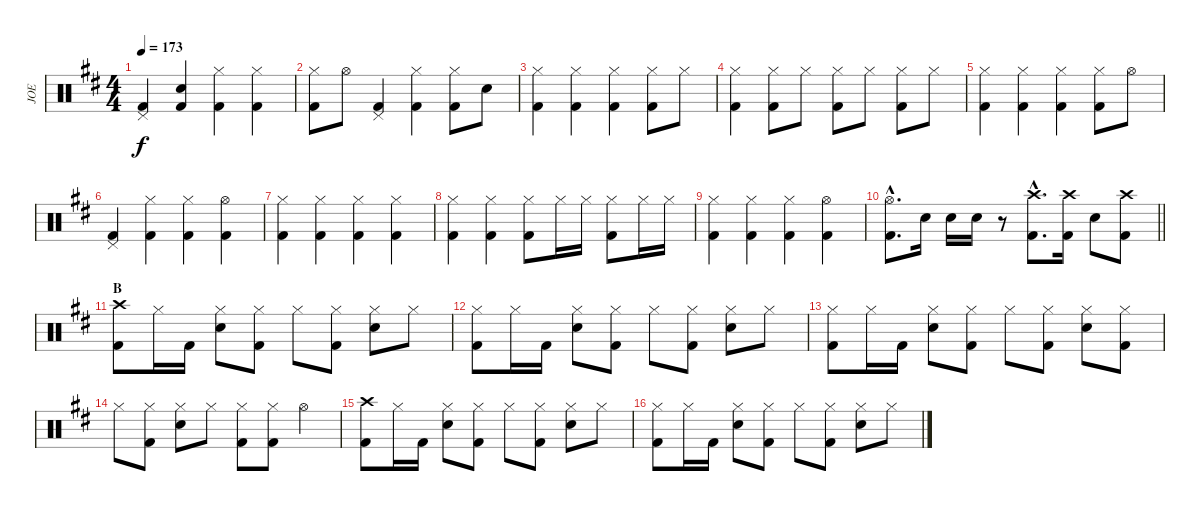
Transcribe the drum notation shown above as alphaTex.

\track ("JOE" "JOE") {instrument percussion}
\staff {score}
\articulation defaults
\ts (4 4)
\tempo 173
\clef neutral
\ks bminor
("Pedal Hi-Hat (hit)" "Kick (hit) 2").4{dy f} ("Snare (hit)" "Kick (hit) 2").4 ("Hi-Hat (closed)" "Kick (hit) 2").4 ("Hi-Hat (closed)" "Kick (hit) 2").4 |
("Hi-Hat (closed)" "Kick (hit) 2").8 "Hi-Hat (open)".8 ("Pedal Hi-Hat (hit)" "Kick (hit) 2").4 ("Hi-Hat (closed)" "Kick (hit) 2").4 ("Hi-Hat (closed)" "Kick (hit) 2").8 "Snare (hit) 2".8 |
("Hi-Hat (closed)" "Kick (hit) 2").4 ("Hi-Hat (closed)" "Kick (hit) 2").4 ("Hi-Hat (closed)" "Kick (hit) 2").4 ("Hi-Hat (closed)" "Kick (hit) 2").8 "Hi-Hat (closed)".8 |
("Hi-Hat (closed)" "Kick (hit) 2").4 ("Hi-Hat (closed)" "Kick (hit) 2").8 "Hi-Hat (closed)".8 ("Hi-Hat (closed)" "Kick (hit) 2").8 "Hi-Hat (closed)".8 ("Hi-Hat (closed)" "Kick (hit) 2").8 "Hi-Hat (closed)".8 |
("Hi-Hat (closed)" "Kick (hit) 2").4 ("Hi-Hat (closed)" "Kick (hit) 2").4 ("Hi-Hat (closed)" "Kick (hit) 2").4 ("Hi-Hat (closed)" "Kick (hit) 2").8 "Hi-Hat (open)".8 |
("Pedal Hi-Hat (hit)" "Kick (hit) 2").4 ("Hi-Hat (closed)" "Kick (hit) 2").4 ("Hi-Hat (closed)" "Kick (hit) 2").4 ("Hi-Hat (open)" "Kick (hit) 2").4 |
("Hi-Hat (closed)" "Kick (hit) 2").4 ("Hi-Hat (closed)" "Kick (hit) 2").4 ("Hi-Hat (closed)" "Kick (hit) 2").4 ("Hi-Hat (closed)" "Kick (hit) 2").4 |
("Hi-Hat (closed)" "Kick (hit) 2").4 ("Hi-Hat (closed)" "Kick (hit) 2").4 ("Hi-Hat (closed)" "Kick (hit) 2").8 "Hi-Hat (closed)".16 "Hi-Hat (closed)".16 ("Hi-Hat (closed)" "Kick (hit) 2").8 "Hi-Hat (closed)".16 "Hi-Hat (closed)".16 |
("Hi-Hat (closed)" "Kick (hit) 2").4 ("Hi-Hat (closed)" "Kick (hit) 2").4 ("Hi-Hat (closed)" "Kick (hit) 2").4 ("Hi-Hat (open)" "Kick (hit) 2").4 |
\barLineRight lightlight
("Hi-Hat (open)"{hac} "Kick (hit) 2"{hac}).8{d} "Snare (hit) 2".16 "Snare (hit) 2".16 "Snare (hit) 2".16 r.8 ("Crash high (hit)"{hac} "Kick (hit) 2"{hac}).8{d} ("Crash high (hit)" "Kick (hit) 2").16 "Snare (hit) 2".8 ("Crash high (hit)" "Kick (hit) 2").8 |
\section ("" "B")
("Crash high (hit)" "Kick (hit) 2").8 "Hi-Hat (closed)".16 "Kick (hit) 2".16 ("Hi-Hat (closed)" "Snare (hit) 2").8 ("Hi-Hat (closed)" "Kick (hit) 2").8 "Hi-Hat (closed)".8 ("Hi-Hat (closed)" "Kick (hit) 2").8 ("Hi-Hat (closed)" "Snare (hit) 2").8 "Hi-Hat (closed)".8 |
("Hi-Hat (closed)" "Kick (hit) 2").8 "Hi-Hat (closed)".16 "Kick (hit) 2".16 ("Hi-Hat (closed)" "Snare (hit) 2").8 ("Hi-Hat (closed)" "Kick (hit) 2").8 "Hi-Hat (closed)".8 ("Hi-Hat (closed)" "Kick (hit) 2").8 ("Hi-Hat (closed)" "Snare (hit) 2").8 "Hi-Hat (closed)".8 |
("Hi-Hat (closed)" "Kick (hit) 2").8 "Hi-Hat (closed)".16 "Kick (hit) 2".16 ("Hi-Hat (closed)" "Snare (hit) 2").8 ("Hi-Hat (closed)" "Kick (hit) 2").8 "Hi-Hat (closed)".8 ("Hi-Hat (closed)" "Kick (hit) 2").8 ("Hi-Hat (closed)" "Snare (hit) 2").8 ("Hi-Hat (closed)" "Kick (hit) 2").8 |
"Hi-Hat (closed)".8 ("Hi-Hat (closed)" "Kick (hit) 2").8 ("Hi-Hat (closed)" "Snare (hit) 2").8 "Hi-Hat (closed)".8 ("Hi-Hat (closed)" "Kick (hit) 2").8 ("Hi-Hat (closed)" "Kick (hit) 2").8 "Hi-Hat (open)".4 |
("Crash high (hit)" "Kick (hit) 2").8 "Hi-Hat (closed)".16 "Kick (hit) 2".16 ("Hi-Hat (closed)" "Snare (hit) 2").8 ("Hi-Hat (closed)" "Kick (hit) 2").8 "Hi-Hat (closed)".8 ("Hi-Hat (closed)" "Kick (hit) 2").8 ("Hi-Hat (closed)" "Snare (hit) 2").8 "Hi-Hat (closed)".8 |
("Hi-Hat (closed)" "Kick (hit) 2").8 "Hi-Hat (closed)".16 "Kick (hit) 2".16 ("Hi-Hat (closed)" "Snare (hit) 2").8 ("Hi-Hat (closed)" "Kick (hit) 2").8 "Hi-Hat (closed)".8 ("Hi-Hat (closed)" "Kick (hit) 2").8 ("Hi-Hat (closed)" "Snare (hit) 2").8 "Hi-Hat (closed)".8
